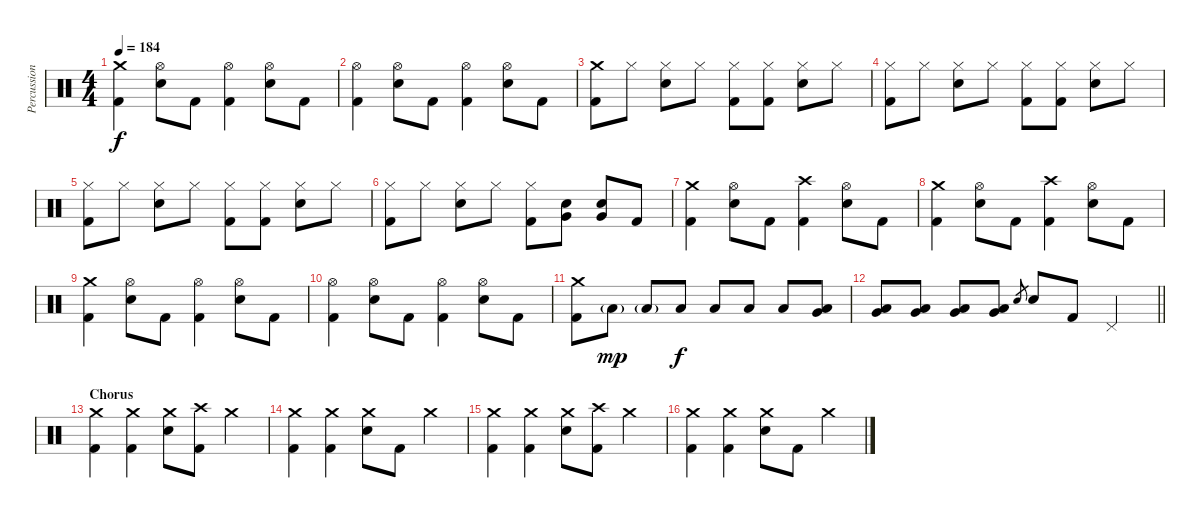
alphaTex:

\track ("Percussions" "Percussion") {instrument percussion}
\staff {score}
\articulation defaults
\ts (4 4)
\tempo 184
\clef neutral
\ks c
("Crash medium (hit)" "Kick (hit) 2").4{dy f} ("Hi-Hat (open)" "Electric Snare (hit)").8 "Kick (hit) 2".8 ("Hi-Hat (open)" "Kick (hit) 2").4 ("Hi-Hat (open)" "Electric Snare (hit)").8 "Kick (hit) 2".8 |
("Hi-Hat (open)" "Kick (hit) 2").4 ("Hi-Hat (open)" "Electric Snare (hit)").8 "Kick (hit) 2".8 ("Hi-Hat (open)" "Kick (hit) 2").4 ("Hi-Hat (open)" "Electric Snare (hit)").8 "Kick (hit) 2".8 |
("Crash medium (hit)" "Kick (hit) 2").8 "Hi-Hat (closed)".8 ("Hi-Hat (closed)" "Electric Snare (hit)").8 "Hi-Hat (closed)".8 ("Hi-Hat (closed)" "Kick (hit) 2").8 ("Hi-Hat (closed)" "Kick (hit) 2").8 ("Hi-Hat (closed)" "Electric Snare (hit)").8 "Hi-Hat (closed)".8 |
("Hi-Hat (closed)" "Kick (hit) 2").8 "Hi-Hat (closed)".8 ("Hi-Hat (closed)" "Electric Snare (hit)").8 "Hi-Hat (closed)".8 ("Hi-Hat (closed)" "Kick (hit) 2").8 ("Hi-Hat (closed)" "Kick (hit) 2").8 ("Hi-Hat (closed)" "Electric Snare (hit)").8 "Hi-Hat (closed)".8 |
("Hi-Hat (closed)" "Kick (hit) 2").8 "Hi-Hat (closed)".8 ("Hi-Hat (closed)" "Electric Snare (hit)").8 "Hi-Hat (closed)".8 ("Hi-Hat (closed)" "Kick (hit) 2").8 ("Hi-Hat (closed)" "Kick (hit) 2").8 ("Hi-Hat (closed)" "Electric Snare (hit)").8 "Hi-Hat (closed)".8 |
("Hi-Hat (closed)" "Kick (hit) 2").8 "Hi-Hat (closed)".8 ("Hi-Hat (closed)" "Electric Snare (hit)").8 "Hi-Hat (closed)".8 ("Hi-Hat (closed)" "Kick (hit) 2").8 ("Very Low Tom (hit)" "Electric Snare (hit)").8 ("Very Low Tom (hit)" "Electric Snare (hit)").8 "Kick (hit) 2".8 |
("Crash medium (hit)" "Kick (hit) 2").4 ("Hi-Hat (open)" "Electric Snare (hit)").8 "Kick (hit) 2".8 ("Crash high (hit)" "Kick (hit) 2").4 ("Hi-Hat (open)" "Electric Snare (hit)").8 "Kick (hit) 2".8 |
("Crash medium (hit)" "Kick (hit) 2").4 ("Hi-Hat (open)" "Electric Snare (hit)").8 "Kick (hit) 2".8 ("Crash high (hit)" "Kick (hit) 2").4 ("Hi-Hat (open)" "Electric Snare (hit)").8 "Kick (hit) 2".8 |
("Crash medium (hit)" "Kick (hit) 2").4 ("Hi-Hat (open)" "Electric Snare (hit)").8 "Kick (hit) 2".8 ("Hi-Hat (open)" "Kick (hit) 2").4 ("Hi-Hat (open)" "Electric Snare (hit)").8 "Kick (hit) 2".8 |
("Hi-Hat (open)" "Kick (hit) 2").4 ("Hi-Hat (open)" "Electric Snare (hit)").8 "Kick (hit) 2".8 ("Hi-Hat (open)" "Kick (hit) 2").4 ("Hi-Hat (open)" "Electric Snare (hit)").8 "Kick (hit) 2".8 |
("Crash medium (hit)" "Kick (hit) 2").8 "Low Floor Tom (hit)"{g}.8{dy mp} "Low Floor Tom (hit)"{g}.8 "Low Floor Tom (hit)".8{dy f} "Low Floor Tom (hit)".8 "Low Floor Tom (hit)".8 "Low Floor Tom (hit)".8 ("Very Low Tom (hit)" "Low Floor Tom (hit)").8 |
\barLineRight lightlight
("Very Low Tom (hit)" "Low Floor Tom (hit)").8 ("Low Tom (hit)" "Very Low Tom (hit)").8 ("Low Tom (hit)" "Very Low Tom (hit)").8 ("Low Tom (hit)" "Very Low Tom (hit)").8 "Electric Snare (hit)".8{gr} "Electric Snare (hit)".8 "Kick (hit) 2".8 "Pedal Hi-Hat (hit)".4 |
\section ("" "Chorus")
("Crash medium (hit)" "Kick (hit) 2").4 ("Crash medium (hit)" "Kick (hit) 2").4 ("Crash medium (hit)" "Electric Snare (hit)").8 ("Crash high (hit)" "Kick (hit) 2").8 "Crash medium (hit)".4 |
("Crash medium (hit)" "Kick (hit) 2").4 ("Crash medium (hit)" "Kick (hit) 2").4 ("Crash medium (hit)" "Electric Snare (hit)").8 "Kick (hit) 2".8 "Crash medium (hit)".4 |
("Crash medium (hit)" "Kick (hit) 2").4 ("Crash medium (hit)" "Kick (hit) 2").4 ("Crash medium (hit)" "Electric Snare (hit)").8 ("Crash high (hit)" "Kick (hit) 2").8 "Crash medium (hit)".4 |
("Crash medium (hit)" "Kick (hit) 2").4 ("Crash medium (hit)" "Kick (hit) 2").4 ("Crash medium (hit)" "Electric Snare (hit)").8 "Kick (hit) 2".8 "Crash medium (hit)".4
